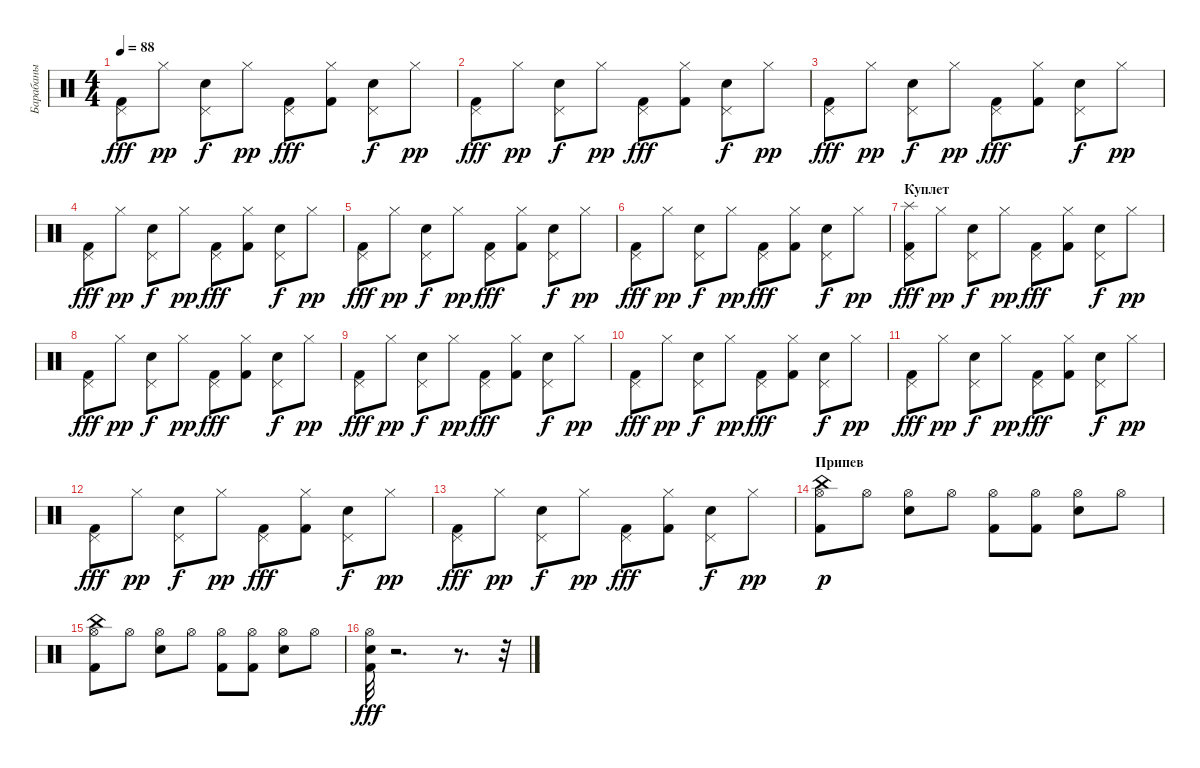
\track ("Барабаны" "Барабаны") {instrument percussion}
\staff {score}
\articulation defaults
\ts (4 4)
\tempo 88
\clef neutral
\ks c
("Pedal Hi-Hat (hit)" "Kick (hit) 2").8{dy fff} "Hi-Hat (closed)".8{dy pp} ("Pedal Hi-Hat (hit)" "Electric Snare (hit)").8{dy f} "Hi-Hat (closed)".8{dy pp} ("Pedal Hi-Hat (hit)" "Kick (hit) 2").8{dy fff} ("Hi-Hat (closed)" "Kick (hit) 2").8 ("Pedal Hi-Hat (hit)" "Electric Snare (hit)").8{dy f} "Hi-Hat (closed)".8{dy pp} |
("Pedal Hi-Hat (hit)" "Kick (hit) 2").8{dy fff} "Hi-Hat (closed)".8{dy pp} ("Pedal Hi-Hat (hit)" "Electric Snare (hit)").8{dy f} "Hi-Hat (closed)".8{dy pp} ("Pedal Hi-Hat (hit)" "Kick (hit) 2").8{dy fff} ("Hi-Hat (closed)" "Kick (hit) 2").8 ("Pedal Hi-Hat (hit)" "Electric Snare (hit)").8{dy f} "Hi-Hat (closed)".8{dy pp} |
("Pedal Hi-Hat (hit)" "Kick (hit) 2").8{dy fff} "Hi-Hat (closed)".8{dy pp} ("Pedal Hi-Hat (hit)" "Electric Snare (hit)").8{dy f} "Hi-Hat (closed)".8{dy pp} ("Pedal Hi-Hat (hit)" "Kick (hit) 2").8{dy fff} ("Hi-Hat (closed)" "Kick (hit) 2").8 ("Pedal Hi-Hat (hit)" "Electric Snare (hit)").8{dy f} "Hi-Hat (closed)".8{dy pp} |
("Pedal Hi-Hat (hit)" "Kick (hit) 2").8{dy fff} "Hi-Hat (closed)".8{dy pp} ("Pedal Hi-Hat (hit)" "Electric Snare (hit)").8{dy f} "Hi-Hat (closed)".8{dy pp} ("Pedal Hi-Hat (hit)" "Kick (hit) 2").8{dy fff} ("Hi-Hat (closed)" "Kick (hit) 2").8 ("Pedal Hi-Hat (hit)" "Electric Snare (hit)").8{dy f} "Hi-Hat (closed)".8{dy pp} |
("Pedal Hi-Hat (hit)" "Kick (hit) 2").8{dy fff} "Hi-Hat (closed)".8{dy pp} ("Pedal Hi-Hat (hit)" "Electric Snare (hit)").8{dy f} "Hi-Hat (closed)".8{dy pp} ("Pedal Hi-Hat (hit)" "Kick (hit) 2").8{dy fff} ("Hi-Hat (closed)" "Kick (hit) 2").8 ("Pedal Hi-Hat (hit)" "Electric Snare (hit)").8{dy f} "Hi-Hat (closed)".8{dy pp} |
("Pedal Hi-Hat (hit)" "Kick (hit) 2").8{dy fff} "Hi-Hat (closed)".8{dy pp} ("Pedal Hi-Hat (hit)" "Electric Snare (hit)").8{dy f} "Hi-Hat (closed)".8{dy pp} ("Pedal Hi-Hat (hit)" "Kick (hit) 2").8{dy fff} ("Hi-Hat (closed)" "Kick (hit) 2").8 ("Pedal Hi-Hat (hit)" "Electric Snare (hit)").8{dy f} "Hi-Hat (closed)".8{dy pp} |
\section ("" "Куплет")
("Splash (hit)" "Pedal Hi-Hat (hit)" "Kick (hit) 2").8{dy fff} "Hi-Hat (closed)".8{dy pp} ("Pedal Hi-Hat (hit)" "Electric Snare (hit)").8{dy f} "Hi-Hat (closed)".8{dy pp} ("Pedal Hi-Hat (hit)" "Kick (hit) 2").8{dy fff} ("Hi-Hat (closed)" "Kick (hit) 2").8 ("Pedal Hi-Hat (hit)" "Electric Snare (hit)").8{dy f} "Hi-Hat (closed)".8{dy pp} |
("Pedal Hi-Hat (hit)" "Kick (hit) 2").8{dy fff} "Hi-Hat (closed)".8{dy pp} ("Pedal Hi-Hat (hit)" "Electric Snare (hit)").8{dy f} "Hi-Hat (closed)".8{dy pp} ("Pedal Hi-Hat (hit)" "Kick (hit) 2").8{dy fff} ("Hi-Hat (closed)" "Kick (hit) 2").8 ("Pedal Hi-Hat (hit)" "Electric Snare (hit)").8{dy f} "Hi-Hat (closed)".8{dy pp} |
("Pedal Hi-Hat (hit)" "Kick (hit) 2").8{dy fff} "Hi-Hat (closed)".8{dy pp} ("Pedal Hi-Hat (hit)" "Electric Snare (hit)").8{dy f} "Hi-Hat (closed)".8{dy pp} ("Pedal Hi-Hat (hit)" "Kick (hit) 2").8{dy fff} ("Hi-Hat (closed)" "Kick (hit) 2").8 ("Pedal Hi-Hat (hit)" "Electric Snare (hit)").8{dy f} "Hi-Hat (closed)".8{dy pp} |
("Pedal Hi-Hat (hit)" "Kick (hit) 2").8{dy fff} "Hi-Hat (closed)".8{dy pp} ("Pedal Hi-Hat (hit)" "Electric Snare (hit)").8{dy f} "Hi-Hat (closed)".8{dy pp} ("Pedal Hi-Hat (hit)" "Kick (hit) 2").8{dy fff} ("Hi-Hat (closed)" "Kick (hit) 2").8 ("Pedal Hi-Hat (hit)" "Electric Snare (hit)").8{dy f} "Hi-Hat (closed)".8{dy pp} |
("Pedal Hi-Hat (hit)" "Kick (hit) 2").8{dy fff} "Hi-Hat (closed)".8{dy pp} ("Pedal Hi-Hat (hit)" "Electric Snare (hit)").8{dy f} "Hi-Hat (closed)".8{dy pp} ("Pedal Hi-Hat (hit)" "Kick (hit) 2").8{dy fff} ("Hi-Hat (closed)" "Kick (hit) 2").8 ("Pedal Hi-Hat (hit)" "Electric Snare (hit)").8{dy f} "Hi-Hat (closed)".8{dy pp} |
("Pedal Hi-Hat (hit)" "Kick (hit) 2").8{dy fff} "Hi-Hat (closed)".8{dy pp} ("Pedal Hi-Hat (hit)" "Electric Snare (hit)").8{dy f} "Hi-Hat (closed)".8{dy pp} ("Pedal Hi-Hat (hit)" "Kick (hit) 2").8{dy fff} ("Hi-Hat (closed)" "Kick (hit) 2").8 ("Pedal Hi-Hat (hit)" "Electric Snare (hit)").8{dy f} "Hi-Hat (closed)".8{dy pp} |
("Pedal Hi-Hat (hit)" "Kick (hit) 2").8{dy fff} "Hi-Hat (closed)".8{dy pp} ("Pedal Hi-Hat (hit)" "Electric Snare (hit)").8{dy f} "Hi-Hat (closed)".8{dy pp} ("Pedal Hi-Hat (hit)" "Kick (hit) 2").8{dy fff} ("Hi-Hat (closed)" "Kick (hit) 2").8 ("Pedal Hi-Hat (hit)" "Electric Snare (hit)").8{dy f} "Hi-Hat (closed)".8{dy pp} |
\section ("" "Припев")
("China (hit)" "Kick (hit) 2" "Hi-Hat (open)").8{dy p} "Hi-Hat (open)".8 ("Electric Snare (hit)" "Hi-Hat (open)").8 "Hi-Hat (open)".8 ("Kick (hit) 2" "Hi-Hat (open)").8 ("Kick (hit) 2" "Hi-Hat (open)").8 ("Electric Snare (hit)" "Hi-Hat (open)").8 "Hi-Hat (open)".8 |
("China (hit)" "Kick (hit) 2" "Hi-Hat (open)").8 "Hi-Hat (open)".8 ("Electric Snare (hit)" "Hi-Hat (open)").8 "Hi-Hat (open)".8 ("Kick (hit) 2" "Hi-Hat (open)").8 ("Kick (hit) 2" "Hi-Hat (open)").8 ("Electric Snare (hit)" "Hi-Hat (open)").8 "Hi-Hat (open)".8 |
("Electric Snare (hit)" "Kick (hit) 2" "Hi-Hat (open)").32{dy fff} r.2{d} r.8{d} r.32
